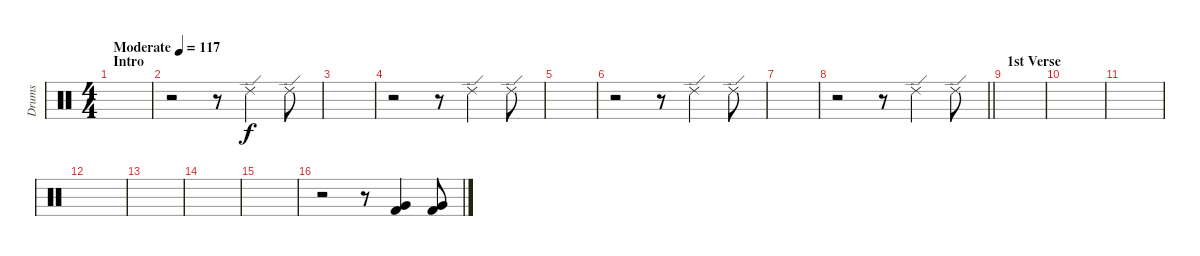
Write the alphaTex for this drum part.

\track ("Drums" "Drums") {instrument percussion}
\staff {score}
\articulation defaults
\ts (4 4)
\section ("" "Intro")
\tempo (117 "Moderate")
\clef neutral
\ks c
|
r.2 r.8 "Ride (edge) 2".4 "Ride (edge) 2".8 |
|
r.2 r.8 "Ride (edge) 2".4 "Ride (edge) 2".8 |
|
r.2 r.8 "Ride (edge) 2".4 "Ride (edge) 2".8 |
|
\barLineRight lightlight
r.2 r.8 "Ride (edge) 2".4 "Ride (edge) 2".8 |
\section ("" "1st Verse")
|
|
|
|
|
|
|
r.2 r.8 ("Very Low Tom (hit)" "Kick (hit) 2").4 ("Very Low Tom (hit)" "Kick (hit) 2").8
